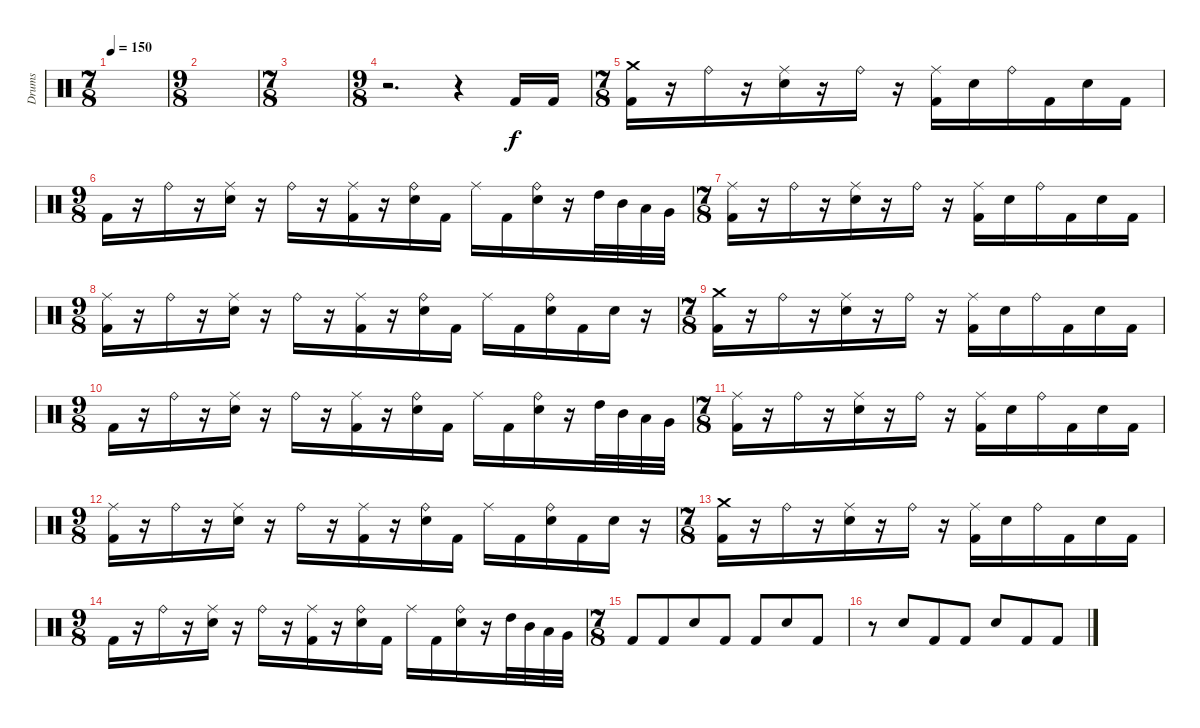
\track ("Drums" "Drums") {instrument percussion}
\staff {score}
\articulation defaults
\ts (7 8)
\tempo 150
\clef neutral
\ks c
|
\ts (9 8)
|
\ts (7 8)
|
\ts (9 8)
r.2{d} r.4 "Kick (hit) 2".16 "Kick (hit) 2".16 |
\ts (7 8)
("Crash medium (hit)" "Kick (hit) 2").16 r.16 "Ride (bell)".16 r.16 ("Ride (middle)" "Electric Snare (hit)").16 r.16 "Ride (bell)".16 r.16 ("Ride (middle)" "Kick (hit) 2").16 "Electric Snare (hit)".16 "Ride (bell)".16 "Kick (hit) 2".16 "Electric Snare (hit)".16 "Kick (hit) 2".16 |
\ts (9 8)
"Kick (hit) 2".16 r.16 "Ride (bell)".16 r.16 ("Ride (middle)" "Electric Snare (hit)").16 r.16 "Ride (bell)".16 r.16 ("Ride (middle)" "Kick (hit) 2").16 r.16 ("Ride (bell)" "Electric Snare (hit)").16 "Kick (hit) 2".16 "Ride (middle)".16 "Kick (hit) 2".16 ("Ride (bell)" "Electric Snare (hit)").16 r.16 "High Tom (hit)".32 "Mid Tom (hit)".32 "Low Tom (hit)".32 "Very Low Tom (hit)".32 |
\ts (7 8)
("Ride (middle)" "Kick (hit) 2").16 r.16 "Ride (bell)".16 r.16 ("Ride (middle)" "Electric Snare (hit)").16 r.16 "Ride (bell)".16 r.16 ("Ride (middle)" "Kick (hit) 2").16 "Electric Snare (hit)".16 "Ride (bell)".16 "Kick (hit) 2".16 "Electric Snare (hit)".16 "Kick (hit) 2".16 |
\ts (9 8)
("Ride (middle)" "Kick (hit) 2").16 r.16 "Ride (bell)".16 r.16 ("Ride (middle)" "Electric Snare (hit)").16 r.16 "Ride (bell)".16 r.16 ("Ride (middle)" "Kick (hit) 2").16 r.16 ("Ride (bell)" "Electric Snare (hit)").16 "Kick (hit) 2".16 "Ride (middle)".16 "Kick (hit) 2".16 ("Ride (bell)" "Electric Snare (hit)").16 "Kick (hit) 2".16 "Electric Snare (hit)".16 r.16 |
\ts (7 8)
("Crash medium (hit)" "Kick (hit) 2").16 r.16 "Ride (bell)".16 r.16 ("Ride (middle)" "Electric Snare (hit)").16 r.16 "Ride (bell)".16 r.16 ("Ride (middle)" "Kick (hit) 2").16 "Electric Snare (hit)".16 "Ride (bell)".16 "Kick (hit) 2".16 "Electric Snare (hit)".16 "Kick (hit) 2".16 |
\ts (9 8)
"Kick (hit) 2".16 r.16 "Ride (bell)".16 r.16 ("Ride (middle)" "Electric Snare (hit)").16 r.16 "Ride (bell)".16 r.16 ("Ride (middle)" "Kick (hit) 2").16 r.16 ("Ride (bell)" "Electric Snare (hit)").16 "Kick (hit) 2".16 "Ride (middle)".16 "Kick (hit) 2".16 ("Ride (bell)" "Electric Snare (hit)").16 r.16 "High Tom (hit)".32 "Mid Tom (hit)".32 "Low Tom (hit)".32 "Very Low Tom (hit)".32 |
\ts (7 8)
("Ride (middle)" "Kick (hit) 2").16 r.16 "Ride (bell)".16 r.16 ("Ride (middle)" "Electric Snare (hit)").16 r.16 "Ride (bell)".16 r.16 ("Ride (middle)" "Kick (hit) 2").16 "Electric Snare (hit)".16 "Ride (bell)".16 "Kick (hit) 2".16 "Electric Snare (hit)".16 "Kick (hit) 2".16 |
\ts (9 8)
("Ride (middle)" "Kick (hit) 2").16 r.16 "Ride (bell)".16 r.16 ("Ride (middle)" "Electric Snare (hit)").16 r.16 "Ride (bell)".16 r.16 ("Ride (middle)" "Kick (hit) 2").16 r.16 ("Ride (bell)" "Electric Snare (hit)").16 "Kick (hit) 2".16 "Ride (middle)".16 "Kick (hit) 2".16 ("Ride (bell)" "Electric Snare (hit)").16 "Kick (hit) 2".16 "Electric Snare (hit)".16 r.16 |
\ts (7 8)
("Crash medium (hit)" "Kick (hit) 2").16 r.16 "Ride (bell)".16 r.16 ("Ride (middle)" "Electric Snare (hit)").16 r.16 "Ride (bell)".16 r.16 ("Ride (middle)" "Kick (hit) 2").16 "Electric Snare (hit)".16 "Ride (bell)".16 "Kick (hit) 2".16 "Electric Snare (hit)".16 "Kick (hit) 2".16 |
\ts (9 8)
"Kick (hit) 2".16 r.16 "Ride (bell)".16 r.16 ("Ride (middle)" "Electric Snare (hit)").16 r.16 "Ride (bell)".16 r.16 ("Ride (middle)" "Kick (hit) 2").16 r.16 ("Ride (bell)" "Electric Snare (hit)").16 "Kick (hit) 2".16 "Ride (middle)".16 "Kick (hit) 2".16 ("Ride (bell)" "Electric Snare (hit)").16 r.16 "High Tom (hit)".32 "Mid Tom (hit)".32 "Low Tom (hit)".32 "Very Low Tom (hit)".32 |
\ts (7 8)
"Kick (hit) 2".8 "Kick (hit) 2".8 "Electric Snare (hit)".8 "Kick (hit) 2".8 "Kick (hit) 2".8 "Electric Snare (hit)".8 "Kick (hit) 2".8 |
r.8 "Electric Snare (hit)".8 "Kick (hit) 2".8 "Kick (hit) 2".8 "Electric Snare (hit)".8 "Kick (hit) 2".8 "Kick (hit) 2".8
